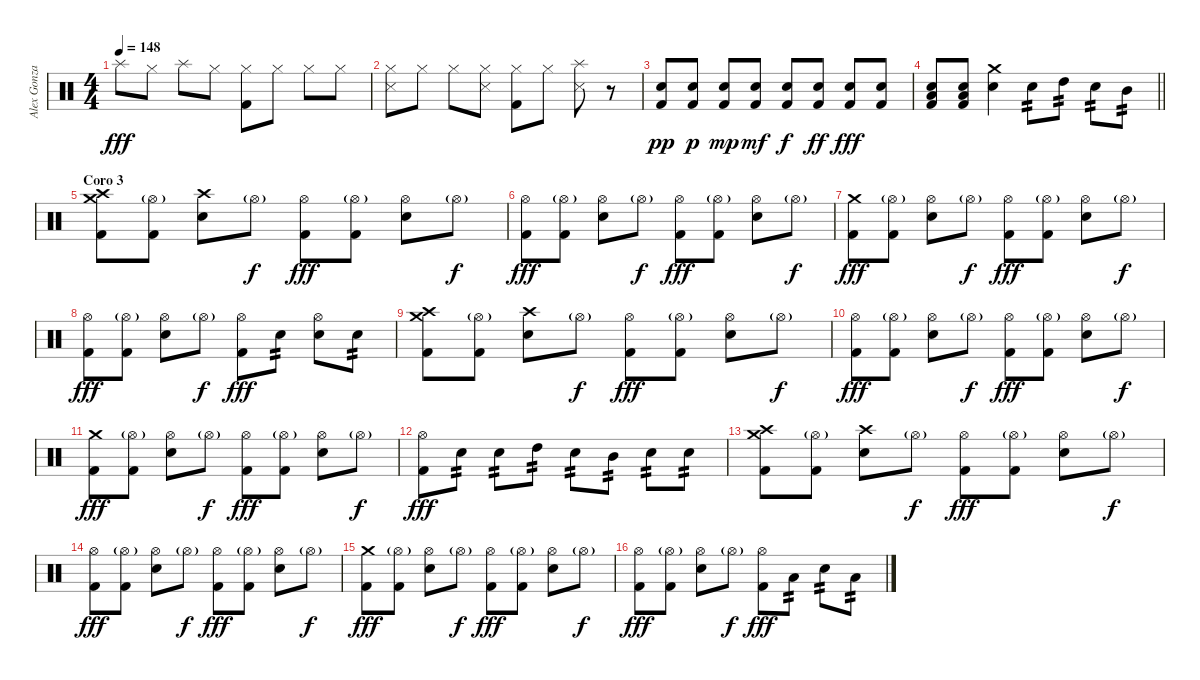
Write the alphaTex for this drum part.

\track ("Alex Gonzalez" "Alex Gonza") {instrument percussion}
\staff {score}
\articulation defaults
\ts (4 4)
\tempo 148
\clef neutral
\ks c "Splash (hit)".8{dy fff} "Hi-Hat (closed)".8 "Splash (hit)".8 "Hi-Hat (closed)".8
("Hi-Hat (closed)" "Kick (hit) 2").8 "Hi-Hat (closed)".8 "Hi-Hat (closed)".8 "Hi-Hat (closed)".8 |
("Hi-Hat (closed)" "Snare (side stick) 3").8 "Hi-Hat (closed)".8 "Hi-Hat (closed)".8 ("Hi-Hat (closed)" "Snare (side stick) 3").8 ("Hi-Hat (closed)" "Kick (hit) 2").8 "Hi-Hat (closed)".8 ("Splash (hit)" "Snare (side stick) 3").8 r.8 |
("Snare (hit) 2" "Kick (hit) 2").8{dy pp} ("Snare (hit) 2" "Kick (hit) 2").8{dy p} ("Snare (hit) 2" "Kick (hit) 2").8{dy mp} ("Snare (hit) 2" "Kick (hit) 2").8{dy mf} ("Snare (hit) 2" "Kick (hit) 2").8{dy f} ("Snare (hit) 2" "Kick (hit) 2").8{dy ff} ("Snare (hit) 2" "Kick (hit) 2").8{dy fff} ("Snare (hit) 2" "Kick (hit) 2").8 |
\barLineRight lightlight
("Low Tom (hit)" "Snare (hit) 2" "Kick (hit) 2").8 ("Low Tom (hit)" "Snare (hit) 2" "Kick (hit) 2").8 ("Crash medium (hit)" "Snare (hit) 2").4 "Snare (hit) 2".8{tp 2} "High Tom (hit)".8{tp 2} "Snare (hit) 2".8{tp 2} "Mid Tom (hit)".8{tp 2} |
\section ("" "Coro 3")
("Crash medium (hit)" "Crash high (hit)" "Kick (hit) 2").8 ("Hi-Hat (open)"{g} "Kick (hit) 2").8 ("Crash high (hit)" "Snare (hit) 2").8 "Hi-Hat (open)"{g}.8{dy f} ("Hi-Hat (open)" "Kick (hit) 2").8{dy fff} ("Hi-Hat (open)"{g} "Kick (hit) 2").8 ("Hi-Hat (open)" "Snare (hit) 2").8 "Hi-Hat (open)"{g}.8{dy f} |
("Hi-Hat (open)" "Kick (hit) 2").8{dy fff} ("Hi-Hat (open)"{g} "Kick (hit) 2").8 ("Hi-Hat (open)" "Snare (hit) 2").8 "Hi-Hat (open)"{g}.8{dy f} ("Hi-Hat (open)" "Kick (hit) 2").8{dy fff} ("Hi-Hat (open)"{g} "Kick (hit) 2").8 ("Hi-Hat (open)" "Snare (hit) 2").8 "Hi-Hat (open)"{g}.8{dy f} |
("Crash medium (hit)" "Kick (hit) 2").8{dy fff} ("Hi-Hat (open)"{g} "Kick (hit) 2").8 ("Hi-Hat (open)" "Snare (hit) 2").8 "Hi-Hat (open)"{g}.8{dy f} ("Hi-Hat (open)" "Kick (hit) 2").8{dy fff} ("Hi-Hat (open)"{g} "Kick (hit) 2").8 ("Hi-Hat (open)" "Snare (hit) 2").8 "Hi-Hat (open)"{g}.8{dy f} |
("Hi-Hat (open)" "Kick (hit) 2").8{dy fff} ("Hi-Hat (open)"{g} "Kick (hit) 2").8 ("Hi-Hat (open)" "Snare (hit) 2").8 "Hi-Hat (open)"{g}.8{dy f} ("Hi-Hat (open)" "Kick (hit) 2").8{dy fff} "Snare (hit) 2".8{tp 2} ("Hi-Hat (open)" "Snare (hit) 2").8 "Snare (hit) 2".8{tp 2} |
("Crash medium (hit)" "Crash high (hit)" "Kick (hit) 2").8 ("Hi-Hat (open)"{g} "Kick (hit) 2").8 ("Crash high (hit)" "Snare (hit) 2").8 "Hi-Hat (open)"{g}.8{dy f} ("Hi-Hat (open)" "Kick (hit) 2").8{dy fff} ("Hi-Hat (open)"{g} "Kick (hit) 2").8 ("Hi-Hat (open)" "Snare (hit) 2").8 "Hi-Hat (open)"{g}.8{dy f} |
("Hi-Hat (open)" "Kick (hit) 2").8{dy fff} ("Hi-Hat (open)"{g} "Kick (hit) 2").8 ("Hi-Hat (open)" "Snare (hit) 2").8 "Hi-Hat (open)"{g}.8{dy f} ("Hi-Hat (open)" "Kick (hit) 2").8{dy fff} ("Hi-Hat (open)"{g} "Kick (hit) 2").8 ("Hi-Hat (open)" "Snare (hit) 2").8 "Hi-Hat (open)"{g}.8{dy f} |
("Crash medium (hit)" "Kick (hit) 2").8{dy fff} ("Hi-Hat (open)"{g} "Kick (hit) 2").8 ("Hi-Hat (open)" "Snare (hit) 2").8 "Hi-Hat (open)"{g}.8{dy f} ("Hi-Hat (open)" "Kick (hit) 2").8{dy fff} ("Hi-Hat (open)"{g} "Kick (hit) 2").8 ("Hi-Hat (open)" "Snare (hit) 2").8 "Hi-Hat (open)"{g}.8{dy f} |
("Hi-Hat (open)" "Kick (hit) 2").8{dy fff} "Snare (hit) 2".8{tp 2} "Snare (hit) 2".8{tp 2} "High Tom (hit)".8{tp 2} "Snare (hit) 2".8{tp 2} "Mid Tom (hit)".8{tp 2} "Snare (hit) 2".8{tp 2} "Snare (hit) 2".8{tp 2} |
("Crash medium (hit)" "Crash high (hit)" "Kick (hit) 2").8 ("Hi-Hat (open)"{g} "Kick (hit) 2").8 ("Crash high (hit)" "Snare (hit) 2").8 "Hi-Hat (open)"{g}.8{dy f} ("Hi-Hat (open)" "Kick (hit) 2").8{dy fff} ("Hi-Hat (open)"{g} "Kick (hit) 2").8 ("Hi-Hat (open)" "Snare (hit) 2").8 "Hi-Hat (open)"{g}.8{dy f} |
("Hi-Hat (open)" "Kick (hit) 2").8{dy fff} ("Hi-Hat (open)"{g} "Kick (hit) 2").8 ("Hi-Hat (open)" "Snare (hit) 2").8 "Hi-Hat (open)"{g}.8{dy f} ("Hi-Hat (open)" "Kick (hit) 2").8{dy fff} ("Hi-Hat (open)"{g} "Kick (hit) 2").8 ("Hi-Hat (open)" "Snare (hit) 2").8 "Hi-Hat (open)"{g}.8{dy f} |
("Crash medium (hit)" "Kick (hit) 2").8{dy fff} ("Hi-Hat (open)"{g} "Kick (hit) 2").8 ("Hi-Hat (open)" "Snare (hit) 2").8 "Hi-Hat (open)"{g}.8{dy f} ("Hi-Hat (open)" "Kick (hit) 2").8{dy fff} ("Hi-Hat (open)"{g} "Kick (hit) 2").8 ("Hi-Hat (open)" "Snare (hit) 2").8 "Hi-Hat (open)"{g}.8{dy f} |
("Hi-Hat (open)" "Kick (hit) 2").8{dy fff} ("Hi-Hat (open)"{g} "Kick (hit) 2").8 ("Hi-Hat (open)" "Snare (hit) 2").8 "Hi-Hat (open)"{g}.8{dy f} ("Hi-Hat (open)" "Kick (hit) 2").8{dy fff} "Low Tom (hit)".8{tp 2} "Snare (hit) 2".8{tp 2} "Low Tom (hit)".8{tp 2}
